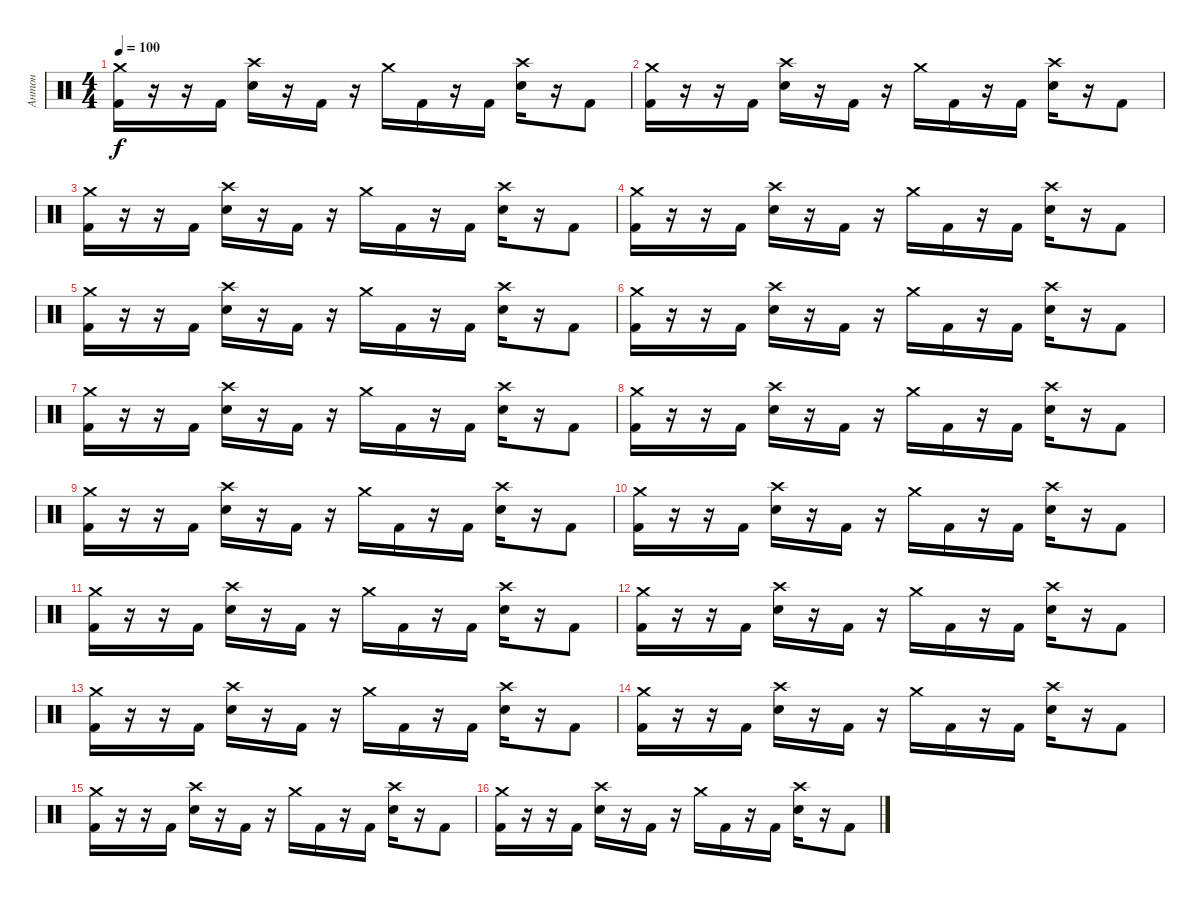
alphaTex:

\track ("Антон" "Антон") {instrument percussion}
\staff {score}
\articulation defaults
\ts (4 4)
\tempo 100
\clef neutral
\ks c
("Crash medium (hit)" "Kick (hit) 2").16{dy f} r.16 r.16 "Kick (hit) 2".16 ("Crash high (hit)" "Electric Snare (hit)").16 r.16 "Kick (hit) 2".16 r.16 "Crash medium (hit)".16 "Kick (hit) 2".16 r.16 "Kick (hit) 2".16 ("Crash high (hit)" "Electric Snare (hit)").16 r.16 "Kick (hit) 2".8 |
("Crash medium (hit)" "Kick (hit) 2").16 r.16 r.16 "Kick (hit) 2".16 ("Crash high (hit)" "Electric Snare (hit)").16 r.16 "Kick (hit) 2".16 r.16 "Crash medium (hit)".16 "Kick (hit) 2".16 r.16 "Kick (hit) 2".16 ("Crash high (hit)" "Electric Snare (hit)").16 r.16 "Kick (hit) 2".8 |
("Crash medium (hit)" "Kick (hit) 2").16 r.16 r.16 "Kick (hit) 2".16 ("Crash high (hit)" "Electric Snare (hit)").16 r.16 "Kick (hit) 2".16 r.16 "Crash medium (hit)".16 "Kick (hit) 2".16 r.16 "Kick (hit) 2".16 ("Crash high (hit)" "Electric Snare (hit)").16 r.16 "Kick (hit) 2".8 |
("Crash medium (hit)" "Kick (hit) 2").16 r.16 r.16 "Kick (hit) 2".16 ("Crash high (hit)" "Electric Snare (hit)").16 r.16 "Kick (hit) 2".16 r.16 "Crash medium (hit)".16 "Kick (hit) 2".16 r.16 "Kick (hit) 2".16 ("Crash high (hit)" "Electric Snare (hit)").16 r.16 "Kick (hit) 2".8 |
("Crash medium (hit)" "Kick (hit) 2").16 r.16 r.16 "Kick (hit) 2".16 ("Crash high (hit)" "Electric Snare (hit)").16 r.16 "Kick (hit) 2".16 r.16 "Crash medium (hit)".16 "Kick (hit) 2".16 r.16 "Kick (hit) 2".16 ("Crash high (hit)" "Electric Snare (hit)").16 r.16 "Kick (hit) 2".8 |
("Crash medium (hit)" "Kick (hit) 2").16 r.16 r.16 "Kick (hit) 2".16 ("Crash high (hit)" "Electric Snare (hit)").16 r.16 "Kick (hit) 2".16 r.16 "Crash medium (hit)".16 "Kick (hit) 2".16 r.16 "Kick (hit) 2".16 ("Crash high (hit)" "Electric Snare (hit)").16 r.16 "Kick (hit) 2".8 |
("Crash medium (hit)" "Kick (hit) 2").16 r.16 r.16 "Kick (hit) 2".16 ("Crash high (hit)" "Electric Snare (hit)").16 r.16 "Kick (hit) 2".16 r.16 "Crash medium (hit)".16 "Kick (hit) 2".16 r.16 "Kick (hit) 2".16 ("Crash high (hit)" "Electric Snare (hit)").16 r.16 "Kick (hit) 2".8 |
("Crash medium (hit)" "Kick (hit) 2").16 r.16 r.16 "Kick (hit) 2".16 ("Crash high (hit)" "Electric Snare (hit)").16 r.16 "Kick (hit) 2".16 r.16 "Crash medium (hit)".16 "Kick (hit) 2".16 r.16 "Kick (hit) 2".16 ("Crash high (hit)" "Electric Snare (hit)").16 r.16 "Kick (hit) 2".8 |
("Crash medium (hit)" "Kick (hit) 2").16 r.16 r.16 "Kick (hit) 2".16 ("Crash high (hit)" "Electric Snare (hit)").16 r.16 "Kick (hit) 2".16 r.16 "Crash medium (hit)".16 "Kick (hit) 2".16 r.16 "Kick (hit) 2".16 ("Crash high (hit)" "Electric Snare (hit)").16 r.16 "Kick (hit) 2".8 |
("Crash medium (hit)" "Kick (hit) 2").16 r.16 r.16 "Kick (hit) 2".16 ("Crash high (hit)" "Electric Snare (hit)").16 r.16 "Kick (hit) 2".16 r.16 "Crash medium (hit)".16 "Kick (hit) 2".16 r.16 "Kick (hit) 2".16 ("Crash high (hit)" "Electric Snare (hit)").16 r.16 "Kick (hit) 2".8 |
("Crash medium (hit)" "Kick (hit) 2").16 r.16 r.16 "Kick (hit) 2".16 ("Crash high (hit)" "Electric Snare (hit)").16 r.16 "Kick (hit) 2".16 r.16 "Crash medium (hit)".16 "Kick (hit) 2".16 r.16 "Kick (hit) 2".16 ("Crash high (hit)" "Electric Snare (hit)").16 r.16 "Kick (hit) 2".8 |
("Crash medium (hit)" "Kick (hit) 2").16 r.16 r.16 "Kick (hit) 2".16 ("Crash high (hit)" "Electric Snare (hit)").16 r.16 "Kick (hit) 2".16 r.16 "Crash medium (hit)".16 "Kick (hit) 2".16 r.16 "Kick (hit) 2".16 ("Crash high (hit)" "Electric Snare (hit)").16 r.16 "Kick (hit) 2".8 |
("Crash medium (hit)" "Kick (hit) 2").16 r.16 r.16 "Kick (hit) 2".16 ("Crash high (hit)" "Electric Snare (hit)").16 r.16 "Kick (hit) 2".16 r.16 "Crash medium (hit)".16 "Kick (hit) 2".16 r.16 "Kick (hit) 2".16 ("Crash high (hit)" "Electric Snare (hit)").16 r.16 "Kick (hit) 2".8 |
("Crash medium (hit)" "Kick (hit) 2").16 r.16 r.16 "Kick (hit) 2".16 ("Crash high (hit)" "Electric Snare (hit)").16 r.16 "Kick (hit) 2".16 r.16 "Crash medium (hit)".16 "Kick (hit) 2".16 r.16 "Kick (hit) 2".16 ("Crash high (hit)" "Electric Snare (hit)").16 r.16 "Kick (hit) 2".8 |
("Crash medium (hit)" "Kick (hit) 2").16 r.16 r.16 "Kick (hit) 2".16 ("Crash high (hit)" "Electric Snare (hit)").16 r.16 "Kick (hit) 2".16 r.16 "Crash medium (hit)".16 "Kick (hit) 2".16 r.16 "Kick (hit) 2".16 ("Crash high (hit)" "Electric Snare (hit)").16 r.16 "Kick (hit) 2".8 |
("Crash medium (hit)" "Kick (hit) 2").16 r.16 r.16 "Kick (hit) 2".16 ("Crash high (hit)" "Electric Snare (hit)").16 r.16 "Kick (hit) 2".16 r.16 "Crash medium (hit)".16 "Kick (hit) 2".16 r.16 "Kick (hit) 2".16 ("Crash high (hit)" "Electric Snare (hit)").16 r.16 "Kick (hit) 2".8
